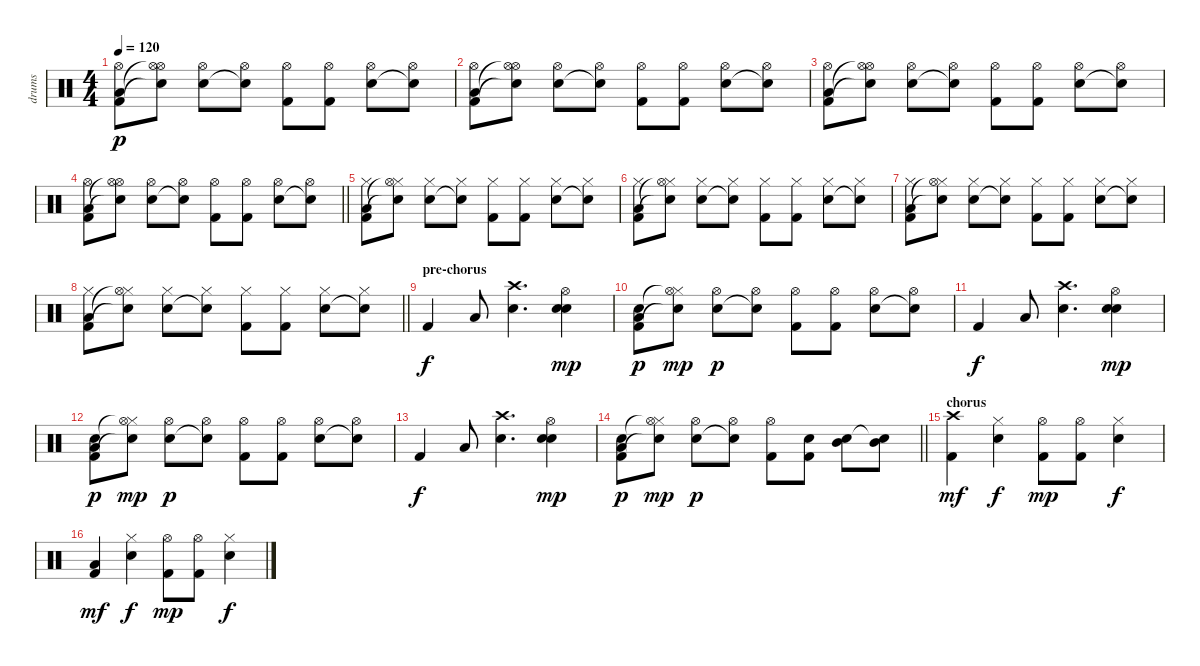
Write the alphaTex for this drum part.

\track ("drums" "drums") {instrument percussion}
\staff {score}
\articulation defaults
\ts (4 4)
\tempo 120
\clef neutral
\ks c
("Kick (hit) 2" "Hi-Hat (open)" "Low Floor Tom (hit)").8{dy p} ("Snare (hit)"{t} "Hi-Hat (open)" "Hi-Hat (open)"{t}).8 ("Electric Snare (hit)" "Hi-Hat (open)").8 ("Snare (hit)"{t} "Hi-Hat (open)").8 ("Kick (hit) 2" "Hi-Hat (open)").8 ("Kick (hit) 2" "Hi-Hat (open)").8 ("Electric Snare (hit)" "Hi-Hat (open)").8 ("Snare (hit)"{t} "Hi-Hat (open)").8 |
("Kick (hit) 2" "Hi-Hat (open)" "Low Floor Tom (hit)").8 ("Snare (hit)"{t} "Hi-Hat (open)" "Hi-Hat (open)"{t}).8 ("Electric Snare (hit)" "Hi-Hat (open)").8 ("Snare (hit)"{t} "Hi-Hat (open)").8 ("Kick (hit) 2" "Hi-Hat (open)").8 ("Kick (hit) 2" "Hi-Hat (open)").8 ("Electric Snare (hit)" "Hi-Hat (open)").8 ("Snare (hit)"{t} "Hi-Hat (open)").8 |
("Kick (hit) 2" "Hi-Hat (open)" "Low Floor Tom (hit)").8 ("Snare (hit)"{t} "Hi-Hat (open)" "Hi-Hat (open)"{t}).8 ("Electric Snare (hit)" "Hi-Hat (open)").8 ("Snare (hit)"{t} "Hi-Hat (open)").8 ("Kick (hit) 2" "Hi-Hat (open)").8 ("Kick (hit) 2" "Hi-Hat (open)").8 ("Electric Snare (hit)" "Hi-Hat (open)").8 ("Snare (hit)"{t} "Hi-Hat (open)").8 |
\barLineRight lightlight
("Kick (hit) 2" "Hi-Hat (open)" "Low Floor Tom (hit)").8 ("Snare (hit)"{t} "Hi-Hat (open)" "Hi-Hat (open)"{t}).8 ("Electric Snare (hit)" "Hi-Hat (open)").8 ("Snare (hit)"{t} "Hi-Hat (open)").8 ("Kick (hit) 2" "Hi-Hat (open)").8 ("Kick (hit) 2" "Hi-Hat (open)").8 ("Electric Snare (hit)" "Hi-Hat (open)").8 ("Snare (hit)"{t} "Hi-Hat (open)").8 |
("Kick (hit) 2" "Hi-Hat (closed)" "Low Floor Tom (hit)").8 ("Snare (hit)"{t} "Hi-Hat (closed)" "Hi-Hat (open)"{t}).8 ("Electric Snare (hit)" "Hi-Hat (closed)").8 ("Snare (hit)"{t} "Hi-Hat (closed)").8 ("Kick (hit) 2" "Hi-Hat (closed)").8 ("Kick (hit) 2" "Hi-Hat (closed)").8 ("Electric Snare (hit)" "Hi-Hat (closed)").8 ("Snare (hit)"{t} "Hi-Hat (closed)").8 |
("Kick (hit) 2" "Hi-Hat (closed)" "Low Floor Tom (hit)").8 ("Snare (hit)"{t} "Hi-Hat (closed)" "Hi-Hat (open)"{t}).8 ("Electric Snare (hit)" "Hi-Hat (closed)").8 ("Snare (hit)"{t} "Hi-Hat (closed)").8 ("Kick (hit) 2" "Hi-Hat (closed)").8 ("Kick (hit) 2" "Hi-Hat (closed)").8 ("Electric Snare (hit)" "Hi-Hat (closed)").8 ("Snare (hit)"{t} "Hi-Hat (closed)").8 |
("Kick (hit) 2" "Hi-Hat (closed)" "Low Floor Tom (hit)").8 ("Snare (hit)"{t} "Hi-Hat (closed)" "Hi-Hat (open)"{t}).8 ("Electric Snare (hit)" "Hi-Hat (closed)").8 ("Snare (hit)"{t} "Hi-Hat (closed)").8 ("Kick (hit) 2" "Hi-Hat (closed)").8 ("Kick (hit) 2" "Hi-Hat (closed)").8 ("Electric Snare (hit)" "Hi-Hat (closed)").8 ("Snare (hit)"{t} "Hi-Hat (closed)").8 |
\barLineRight lightlight
("Kick (hit) 2" "Hi-Hat (closed)" "Low Floor Tom (hit)").8 ("Snare (hit)"{t} "Hi-Hat (closed)" "Hi-Hat (open)"{t}).8 ("Electric Snare (hit)" "Hi-Hat (closed)").8 ("Snare (hit)"{t} "Hi-Hat (closed)").8 ("Kick (hit) 2" "Hi-Hat (closed)").8 ("Kick (hit) 2" "Hi-Hat (closed)").8 ("Electric Snare (hit)" "Hi-Hat (closed)").8 ("Snare (hit)"{t} "Hi-Hat (closed)").8 |
\section ("" "pre-chorus")
"Kick (hit) 2".4{dy f} "Low Floor Tom (hit)".8 ("Electric Snare (hit)" "Crash high (hit)").4{d} ("Electric Snare (hit)" "Electric Snare (hit)" "Hi-Hat (open)").4{dy mp} |
("Kick (hit) 2" "Low Floor Tom (hit)" "Electric Snare (hit)").8{dy p} ("Snare (hit)"{t} "Hi-Hat (closed)" "Hi-Hat (open)"{t}).8{dy mp} ("Electric Snare (hit)" "Hi-Hat (open)").8{dy p} ("Snare (hit)"{t} "Hi-Hat (open)").8 ("Kick (hit) 2" "Hi-Hat (open)").8 ("Kick (hit) 2" "Hi-Hat (open)").8 ("Electric Snare (hit)" "Hi-Hat (open)").8 ("Snare (hit)"{t} "Hi-Hat (open)").8 |
"Kick (hit) 2".4{dy f} "Low Floor Tom (hit)".8 ("Electric Snare (hit)" "Crash high (hit)").4{d} ("Electric Snare (hit)" "Electric Snare (hit)" "Hi-Hat (open)").4{dy mp} |
("Kick (hit) 2" "Low Floor Tom (hit)" "Electric Snare (hit)").8{dy p} ("Snare (hit)"{t} "Hi-Hat (closed)" "Hi-Hat (open)"{t}).8{dy mp} ("Electric Snare (hit)" "Hi-Hat (open)").8{dy p} ("Snare (hit)"{t} "Hi-Hat (open)").8 ("Kick (hit) 2" "Hi-Hat (open)").8 ("Kick (hit) 2" "Hi-Hat (open)").8 ("Electric Snare (hit)" "Hi-Hat (open)").8 ("Snare (hit)"{t} "Hi-Hat (open)").8 |
"Kick (hit) 2".4{dy f} "Low Floor Tom (hit)".8 ("Electric Snare (hit)" "Crash high (hit)").4{d} ("Electric Snare (hit)" "Electric Snare (hit)" "Hi-Hat (open)").4{dy mp} |
\barLineRight lightlight
("Kick (hit) 2" "Low Floor Tom (hit)" "Electric Snare (hit)").8{dy p} ("Snare (hit)"{t} "Hi-Hat (closed)" "Hi-Hat (open)"{t}).8{dy mp} ("Electric Snare (hit)" "Hi-Hat (open)").8{dy p} ("Snare (hit)"{t} "Hi-Hat (open)").8 ("Kick (hit) 2" "Hi-Hat (open)").8 ("Kick (hit) 2" "Electric Snare (hit)").8 ("Electric Snare (hit)" "Mid Tom (hit)").8 ("Snare (hit)"{t} "Mid Tom (hit)").8 |
\section ("" "chorus")
("Kick (hit) 2" "Crash high (hit)").4{dy mf} ("Electric Snare (hit)" "Hi-Hat (closed)").4{dy f} ("Kick (hit) 2" "Hi-Hat (open)").8{dy mp} ("Kick (hit) 2" "Hi-Hat (open)").8 ("Electric Snare (hit)" "Hi-Hat (closed)").4{dy f} |
("Kick (hit) 2" "Low Floor Tom (hit)").4{dy mf} ("Electric Snare (hit)" "Hi-Hat (closed)").4{dy f} ("Kick (hit) 2" "Hi-Hat (open)").8{dy mp} ("Kick (hit) 2" "Hi-Hat (open)").8 ("Electric Snare (hit)" "Hi-Hat (closed)").4{dy f}
